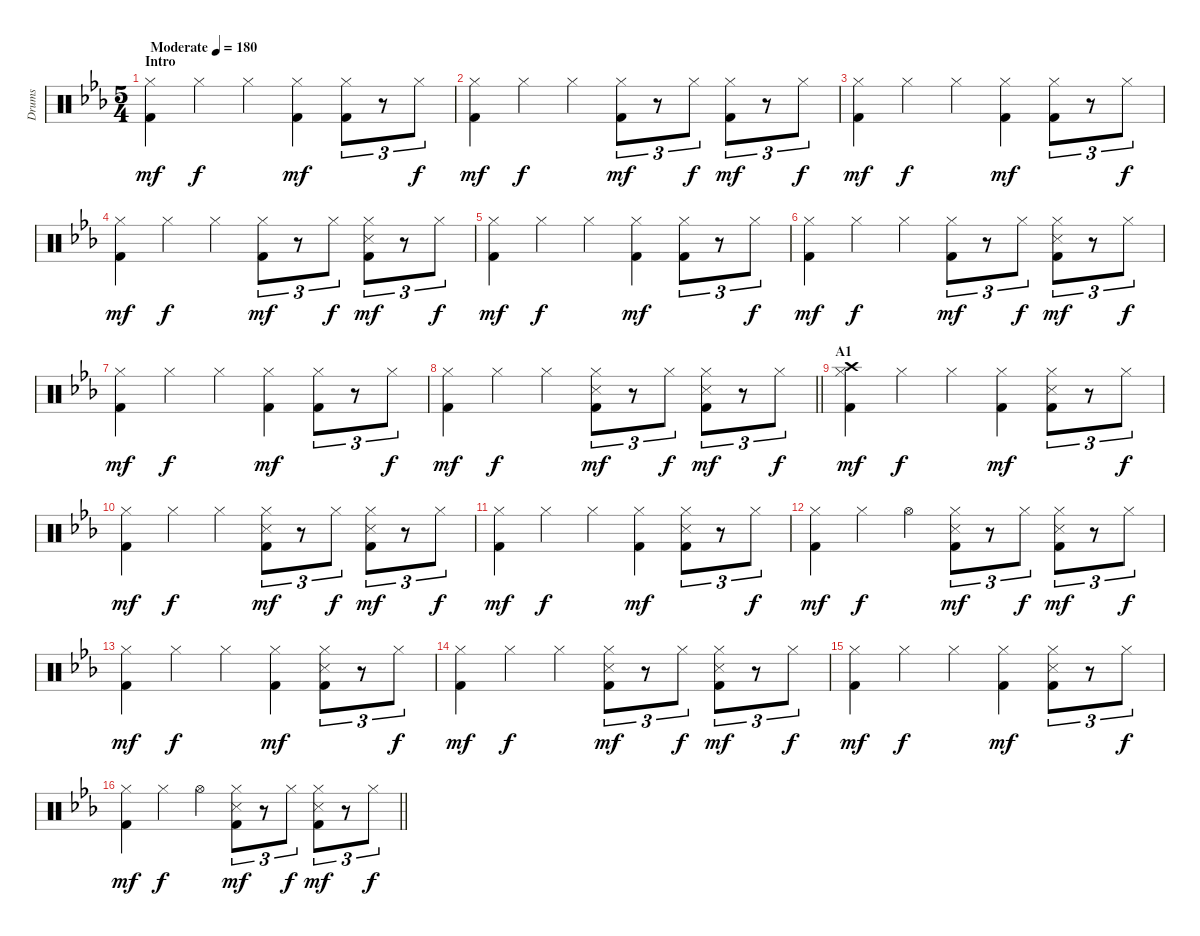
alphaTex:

\track ("Drums" "Drums") {instrument percussion}
\staff {score}
\articulation defaults
\ts (5 4)
\section ("" "Intro")
\tempo (180 "Moderate")
\clef neutral
\ks eb
("Hi-Hat (closed)" "Kick (hit) 2").4{dy mf} "Hi-Hat (closed)".4{dy f} "Hi-Hat (closed)".4 ("Hi-Hat (closed)" "Kick (hit) 2").4{dy mf} ("Hi-Hat (closed)" "Kick (hit) 2").8{tu (3 2)} r.8{tu (3 2)} "Hi-Hat (closed)".8{tu (3 2) dy f} |
("Hi-Hat (closed)" "Kick (hit) 2").4{dy mf} "Hi-Hat (closed)".4{dy f} "Hi-Hat (closed)".4 ("Hi-Hat (closed)" "Kick (hit) 2").8{tu (3 2) dy mf} r.8{tu (3 2)} "Hi-Hat (closed)".8{tu (3 2) dy f} ("Hi-Hat (closed)" "Kick (hit) 2").8{tu (3 2) dy mf} r.8{tu (3 2)} "Hi-Hat (closed)".8{tu (3 2) dy f} |
("Hi-Hat (closed)" "Kick (hit) 2").4{dy mf} "Hi-Hat (closed)".4{dy f} "Hi-Hat (closed)".4 ("Hi-Hat (closed)" "Kick (hit) 2").4{dy mf} ("Hi-Hat (closed)" "Kick (hit) 2").8{tu (3 2)} r.8{tu (3 2)} "Hi-Hat (closed)".8{tu (3 2) dy f} |
("Hi-Hat (closed)" "Kick (hit) 2").4{dy mf} "Hi-Hat (closed)".4{dy f} "Hi-Hat (closed)".4 ("Hi-Hat (closed)" "Kick (hit) 2").8{tu (3 2) dy mf} r.8{tu (3 2)} "Hi-Hat (closed)".8{tu (3 2) dy f} ("Hi-Hat (closed)" "Snare (side stick) 3" "Kick (hit) 2").8{tu (3 2) dy mf} r.8{tu (3 2)} "Hi-Hat (closed)".8{tu (3 2) dy f} |
("Hi-Hat (closed)" "Kick (hit) 2").4{dy mf} "Hi-Hat (closed)".4{dy f} "Hi-Hat (closed)".4 ("Hi-Hat (closed)" "Kick (hit) 2").4{dy mf} ("Hi-Hat (closed)" "Kick (hit) 2").8{tu (3 2)} r.8{tu (3 2)} "Hi-Hat (closed)".8{tu (3 2) dy f} |
("Hi-Hat (closed)" "Kick (hit) 2").4{dy mf} "Hi-Hat (closed)".4{dy f} "Hi-Hat (closed)".4 ("Hi-Hat (closed)" "Kick (hit) 2").8{tu (3 2) dy mf} r.8{tu (3 2)} "Hi-Hat (closed)".8{tu (3 2) dy f} ("Hi-Hat (closed)" "Snare (side stick) 3" "Kick (hit) 2").8{tu (3 2) dy mf} r.8{tu (3 2)} "Hi-Hat (closed)".8{tu (3 2) dy f} |
("Hi-Hat (closed)" "Kick (hit) 2").4{dy mf} "Hi-Hat (closed)".4{dy f} "Hi-Hat (closed)".4 ("Hi-Hat (closed)" "Kick (hit) 2").4{dy mf} ("Hi-Hat (closed)" "Kick (hit) 2").8{tu (3 2)} r.8{tu (3 2)} "Hi-Hat (closed)".8{tu (3 2) dy f} |
\barLineRight lightlight
("Hi-Hat (closed)" "Kick (hit) 2").4{dy mf} "Hi-Hat (closed)".4{dy f} "Hi-Hat (closed)".4 ("Hi-Hat (closed)" "Snare (side stick) 3" "Kick (hit) 2").8{tu (3 2) dy mf} r.8{tu (3 2)} "Hi-Hat (closed)".8{tu (3 2) dy f} ("Hi-Hat (closed)" "Snare (side stick) 3" "Kick (hit) 2").8{tu (3 2) dy mf} r.8{tu (3 2)} "Hi-Hat (closed)".8{tu (3 2) dy f} |
\section ("" "A1")
("Hi-Hat (closed)" "Crash high (hit)" "Kick (hit) 2").4{dy mf} "Hi-Hat (closed)".4{dy f} "Hi-Hat (closed)".4 ("Hi-Hat (closed)" "Kick (hit) 2").4{dy mf} ("Hi-Hat (closed)" "Snare (side stick) 3" "Kick (hit) 2").8{tu (3 2)} r.8{tu (3 2)} "Hi-Hat (closed)".8{tu (3 2) dy f} |
("Hi-Hat (closed)" "Kick (hit) 2").4{dy mf} "Hi-Hat (closed)".4{dy f} "Hi-Hat (closed)".4 ("Hi-Hat (closed)" "Snare (side stick) 3" "Kick (hit) 2").8{tu (3 2) dy mf} r.8{tu (3 2)} "Hi-Hat (closed)".8{tu (3 2) dy f} ("Hi-Hat (closed)" "Snare (side stick) 3" "Kick (hit) 2").8{tu (3 2) dy mf} r.8{tu (3 2)} "Hi-Hat (closed)".8{tu (3 2) dy f} |
("Hi-Hat (closed)" "Kick (hit) 2").4{dy mf} "Hi-Hat (closed)".4{dy f} "Hi-Hat (closed)".4 ("Hi-Hat (closed)" "Kick (hit) 2").4{dy mf} ("Hi-Hat (closed)" "Snare (side stick) 3" "Kick (hit) 2").8{tu (3 2)} r.8{tu (3 2)} "Hi-Hat (closed)".8{tu (3 2) dy f} |
("Hi-Hat (closed)" "Kick (hit) 2").4{dy mf} "Hi-Hat (closed)".4{dy f} "Hi-Hat (open)".4 ("Hi-Hat (closed)" "Snare (side stick) 3" "Kick (hit) 2").8{tu (3 2) dy mf} r.8{tu (3 2)} "Hi-Hat (closed)".8{tu (3 2) dy f} ("Hi-Hat (closed)" "Snare (side stick) 3" "Kick (hit) 2").8{tu (3 2) dy mf} r.8{tu (3 2)} "Hi-Hat (closed)".8{tu (3 2) dy f} |
("Hi-Hat (closed)" "Kick (hit) 2").4{dy mf} "Hi-Hat (closed)".4{dy f} "Hi-Hat (closed)".4 ("Hi-Hat (closed)" "Kick (hit) 2").4{dy mf} ("Hi-Hat (closed)" "Snare (side stick) 3" "Kick (hit) 2").8{tu (3 2)} r.8{tu (3 2)} "Hi-Hat (closed)".8{tu (3 2) dy f} |
("Hi-Hat (closed)" "Kick (hit) 2").4{dy mf} "Hi-Hat (closed)".4{dy f} "Hi-Hat (closed)".4 ("Hi-Hat (closed)" "Snare (side stick) 3" "Kick (hit) 2").8{tu (3 2) dy mf} r.8{tu (3 2)} "Hi-Hat (closed)".8{tu (3 2) dy f} ("Hi-Hat (closed)" "Snare (side stick) 3" "Kick (hit) 2").8{tu (3 2) dy mf} r.8{tu (3 2)} "Hi-Hat (closed)".8{tu (3 2) dy f} |
("Hi-Hat (closed)" "Kick (hit) 2").4{dy mf} "Hi-Hat (closed)".4{dy f} "Hi-Hat (closed)".4 ("Hi-Hat (closed)" "Kick (hit) 2").4{dy mf} ("Hi-Hat (closed)" "Snare (side stick) 3" "Kick (hit) 2").8{tu (3 2)} r.8{tu (3 2)} "Hi-Hat (closed)".8{tu (3 2) dy f} |
\barLineRight lightlight
("Hi-Hat (closed)" "Kick (hit) 2").4{dy mf} "Hi-Hat (closed)".4{dy f} "Hi-Hat (open)".4 ("Hi-Hat (closed)" "Snare (side stick) 3" "Kick (hit) 2").8{tu (3 2) dy mf} r.8{tu (3 2)} "Hi-Hat (closed)".8{tu (3 2) dy f} ("Hi-Hat (closed)" "Snare (side stick) 3" "Kick (hit) 2").8{tu (3 2) dy mf} r.8{tu (3 2)} "Hi-Hat (closed)".8{tu (3 2) dy f}
